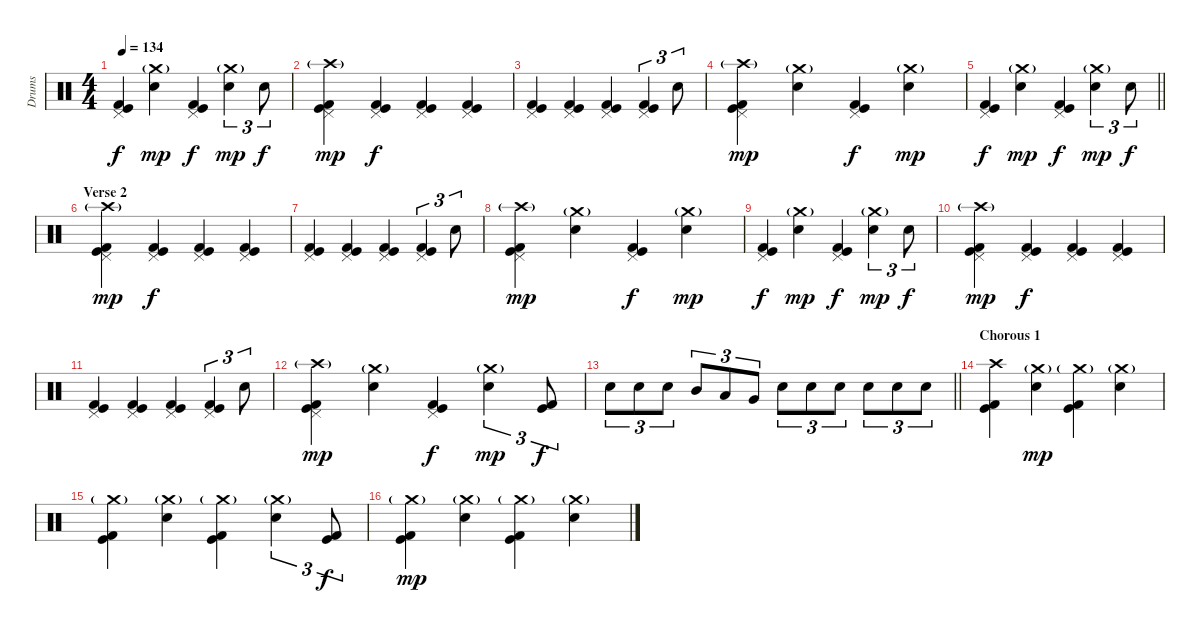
\track ("Drums" "Drums") {instrument percussion}
\staff {score}
\articulation defaults
\ts (4 4)
\tempo 134
\clef neutral
\ks c
("Pedal Hi-Hat (hit)" "Kick (hit)" "Kick (hit) 2").4{dy f} ("Crash medium (hit)"{g} "Electric Snare (hit)").4{dy mp} ("Pedal Hi-Hat (hit)" "Kick (hit)" "Kick (hit) 2").4{dy f} ("Crash medium (hit)"{g} "Electric Snare (hit)").4{tu (3 2) dy mp} "Electric Snare (hit)".8{tu (3 2) dy f} |
("Pedal Hi-Hat (hit)" "Crash high (hit)"{g} "Kick (hit)" "Kick (hit) 2").4{dy mp} ("Pedal Hi-Hat (hit)" "Kick (hit)" "Kick (hit) 2").4{dy f} ("Pedal Hi-Hat (hit)" "Kick (hit)" "Kick (hit) 2").4 ("Pedal Hi-Hat (hit)" "Kick (hit)" "Kick (hit) 2").4 |
("Pedal Hi-Hat (hit)" "Kick (hit)" "Kick (hit) 2").4 ("Pedal Hi-Hat (hit)" "Kick (hit)" "Kick (hit) 2").4 ("Pedal Hi-Hat (hit)" "Kick (hit)" "Kick (hit) 2").4 ("Pedal Hi-Hat (hit)" "Kick (hit)" "Kick (hit) 2").4{tu (3 2)} "Electric Snare (hit)".8{tu (3 2)} |
("Pedal Hi-Hat (hit)" "Crash high (hit)"{g} "Kick (hit)" "Kick (hit) 2").4{dy mp} ("Crash medium (hit)"{g} "Electric Snare (hit)").4 ("Pedal Hi-Hat (hit)" "Kick (hit)" "Kick (hit) 2").4{dy f} ("Crash medium (hit)"{g} "Electric Snare (hit)").4{dy mp} |
\barLineRight lightlight
("Pedal Hi-Hat (hit)" "Kick (hit)" "Kick (hit) 2").4{dy f} ("Crash medium (hit)"{g} "Electric Snare (hit)").4{dy mp} ("Pedal Hi-Hat (hit)" "Kick (hit)" "Kick (hit) 2").4{dy f} ("Crash medium (hit)"{g} "Electric Snare (hit)").4{tu (3 2) dy mp} "Electric Snare (hit)".8{tu (3 2) dy f} |
\section ("" "Verse 2")
("Pedal Hi-Hat (hit)" "Crash high (hit)"{g} "Kick (hit)" "Kick (hit) 2").4{dy mp} ("Pedal Hi-Hat (hit)" "Kick (hit)" "Kick (hit) 2").4{dy f} ("Pedal Hi-Hat (hit)" "Kick (hit)" "Kick (hit) 2").4 ("Pedal Hi-Hat (hit)" "Kick (hit)" "Kick (hit) 2").4 |
("Pedal Hi-Hat (hit)" "Kick (hit)" "Kick (hit) 2").4 ("Pedal Hi-Hat (hit)" "Kick (hit)" "Kick (hit) 2").4 ("Pedal Hi-Hat (hit)" "Kick (hit)" "Kick (hit) 2").4 ("Pedal Hi-Hat (hit)" "Kick (hit)" "Kick (hit) 2").4{tu (3 2)} "Electric Snare (hit)".8{tu (3 2)} |
("Pedal Hi-Hat (hit)" "Crash high (hit)"{g} "Kick (hit)" "Kick (hit) 2").4{dy mp} ("Crash medium (hit)"{g} "Electric Snare (hit)").4 ("Pedal Hi-Hat (hit)" "Kick (hit)" "Kick (hit) 2").4{dy f} ("Crash medium (hit)"{g} "Electric Snare (hit)").4{dy mp} |
("Pedal Hi-Hat (hit)" "Kick (hit)" "Kick (hit) 2").4{dy f} ("Crash medium (hit)"{g} "Electric Snare (hit)").4{dy mp} ("Pedal Hi-Hat (hit)" "Kick (hit)" "Kick (hit) 2").4{dy f} ("Crash medium (hit)"{g} "Electric Snare (hit)").4{tu (3 2) dy mp} "Electric Snare (hit)".8{tu (3 2) dy f} |
("Pedal Hi-Hat (hit)" "Crash high (hit)"{g} "Kick (hit)" "Kick (hit) 2").4{dy mp} ("Pedal Hi-Hat (hit)" "Kick (hit)" "Kick (hit) 2").4{dy f} ("Pedal Hi-Hat (hit)" "Kick (hit)" "Kick (hit) 2").4 ("Pedal Hi-Hat (hit)" "Kick (hit)" "Kick (hit) 2").4 |
("Pedal Hi-Hat (hit)" "Kick (hit)" "Kick (hit) 2").4 ("Pedal Hi-Hat (hit)" "Kick (hit)" "Kick (hit) 2").4 ("Pedal Hi-Hat (hit)" "Kick (hit)" "Kick (hit) 2").4 ("Pedal Hi-Hat (hit)" "Kick (hit)" "Kick (hit) 2").4{tu (3 2)} "Electric Snare (hit)".8{tu (3 2)} |
("Pedal Hi-Hat (hit)" "Crash high (hit)"{g} "Kick (hit)" "Kick (hit) 2").4{dy mp} ("Crash medium (hit)"{g} "Electric Snare (hit)").4 ("Pedal Hi-Hat (hit)" "Kick (hit)" "Kick (hit) 2").4{dy f} ("Crash medium (hit)"{g} "Electric Snare (hit)").4{tu (3 2) dy mp} ("Kick (hit)" "Kick (hit) 2").8{tu (3 2) dy f} |
\barLineRight lightlight "Electric Snare (hit)".8{tu (3 2)} "Electric Snare (hit)".8{tu (3 2)} "Electric Snare (hit)".8{tu (3 2)} "Mid Tom (hit)".8{tu (3 2)} "Low Tom (hit)".8{tu (3 2)} "Very Low Tom (hit)".8{tu (3 2)} "Electric Snare (hit)".8{tu (3 2)} "Electric Snare (hit)".8{tu (3 2)} "Electric Snare (hit)".8{tu (3 2)} "Electric Snare (hit)".8{tu (3 2)} "Electric Snare (hit)".8{tu (3 2)} "Electric Snare (hit)".8{tu (3 2)}
|
\section ("" "Chorous 1")
("Crash high (hit)" "Kick (hit)" "Kick (hit) 2").4 ("Crash medium (hit)"{g} "Electric Snare (hit)").4{dy mp} ("Crash medium (hit)"{g} "Kick (hit)" "Kick (hit) 2").4 ("Crash medium (hit)"{g} "Electric Snare (hit)").4 |
("Crash medium (hit)"{g} "Kick (hit)" "Kick (hit) 2").4 ("Crash medium (hit)"{g} "Electric Snare (hit)").4 ("Crash medium (hit)"{g} "Kick (hit)" "Kick (hit) 2").4 ("Crash medium (hit)"{g} "Electric Snare (hit)").4{tu (3 2)} ("Kick (hit)" "Kick (hit) 2").8{tu (3 2) dy f} |
("Crash medium (hit)"{g} "Kick (hit)" "Kick (hit) 2").4{dy mp} ("Crash medium (hit)"{g} "Electric Snare (hit)").4 ("Crash medium (hit)"{g} "Kick (hit)" "Kick (hit) 2").4 ("Crash medium (hit)"{g} "Electric Snare (hit)").4
